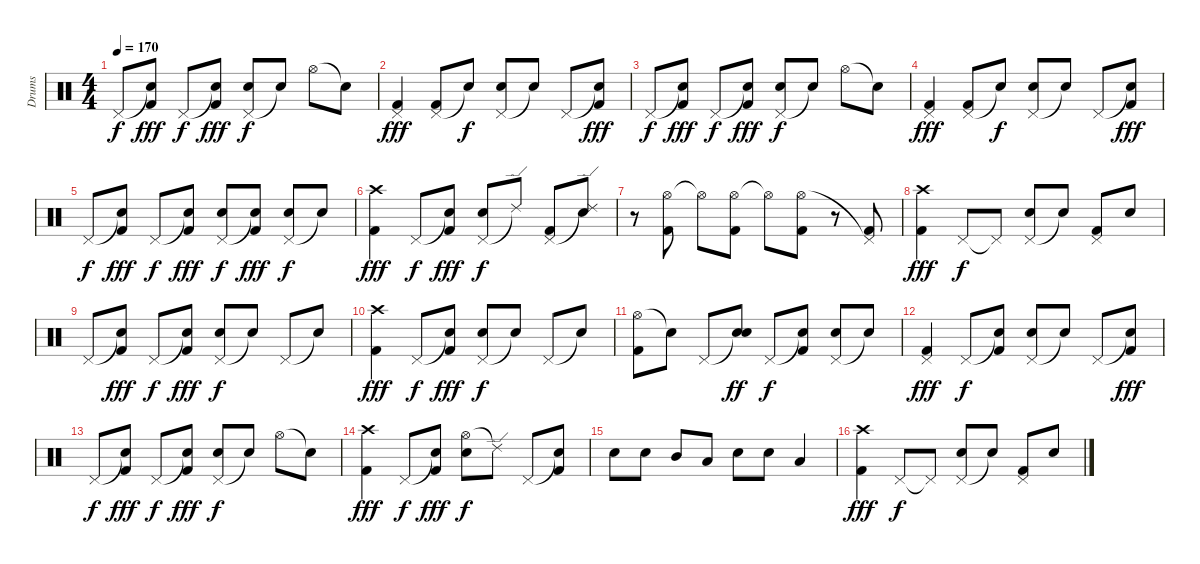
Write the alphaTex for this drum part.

\track ("Drums" "Drums") {instrument percussion}
\staff {score}
\articulation defaults
\ts (4 4)
\tempo 170
\clef neutral
\ks c "Pedal Hi-Hat (hit)".8{dy f}
("Snare (hit)"{t} "Kick (hit) 2").8{dy fff} "Pedal Hi-Hat (hit)".8{dy f} ("Snare (hit)"{t} "Kick (hit) 2").8{dy fff} ("Pedal Hi-Hat (hit)" "Electric Snare (hit)").8{dy f} "Snare (hit)"{t}.8 "Hi-Hat (open)".8 "Snare (hit)"{t}.8 |
("Pedal Hi-Hat (hit)" "Kick (hit) 2").4{dy fff} ("Pedal Hi-Hat (hit)" "Kick (hit) 2").8 "Snare (hit)"{t}.8{dy f} ("Pedal Hi-Hat (hit)" "Electric Snare (hit)").8 "Snare (hit)"{t}.8 "Pedal Hi-Hat (hit)".8 ("Snare (hit)"{t} "Kick (hit) 2").8{dy fff} |
"Pedal Hi-Hat (hit)".8{dy f} ("Snare (hit)"{t} "Kick (hit) 2").8{dy fff} "Pedal Hi-Hat (hit)".8{dy f} ("Snare (hit)"{t} "Kick (hit) 2").8{dy fff} ("Pedal Hi-Hat (hit)" "Electric Snare (hit)").8{dy f} "Snare (hit)"{t}.8 "Hi-Hat (open)".8 "Snare (hit)"{t}.8 |
("Pedal Hi-Hat (hit)" "Kick (hit) 2").4{dy fff} ("Pedal Hi-Hat (hit)" "Kick (hit) 2").8 "Snare (hit)"{t}.8{dy f} ("Pedal Hi-Hat (hit)" "Electric Snare (hit)").8 "Snare (hit)"{t}.8 "Pedal Hi-Hat (hit)".8 ("Snare (hit)"{t} "Kick (hit) 2").8{dy fff} |
"Pedal Hi-Hat (hit)".8{dy f} ("Snare (hit)"{t} "Kick (hit) 2").8{dy fff} "Pedal Hi-Hat (hit)".8{dy f} ("Snare (hit)"{t} "Kick (hit) 2").8{dy fff} ("Pedal Hi-Hat (hit)" "Electric Snare (hit)").8{dy f} ("Snare (hit)"{t} "Kick (hit) 2").8{dy fff} ("Pedal Hi-Hat (hit)" "Electric Snare (hit)").8{dy f} "Snare (hit)"{t}.8 |
("Crash high (hit)" "Kick (hit) 2").4{dy fff} "Pedal Hi-Hat (hit)".8{dy f} ("Snare (hit)"{t} "Kick (hit) 2").8{dy fff} ("Pedal Hi-Hat (hit)" "Electric Snare (hit)").8{dy f} "Ride (edge) 2"{t}.8 ("Pedal Hi-Hat (hit)" "Kick (hit) 2").8 ("Ride (edge) 2"{t} "Electric Snare (hit)").8 |
r.8 ("Hi-Hat (open)" "Kick (hit) 2").8 "Hi-Hat (open)"{t}.8 ("Hi-Hat (open)" "Kick (hit) 2").8 "Hi-Hat (open)"{t}.8 ("Hi-Hat (open)" "Kick (hit) 2").8 r.8 ("Pedal Hi-Hat (hit)"{t} "Kick (hit) 2").8 |
("Crash high (hit)" "Kick (hit) 2").4{dy fff} "Pedal Hi-Hat (hit)".8{dy f} "Pedal Hi-Hat (hit)"{t}.8 ("Pedal Hi-Hat (hit)" "Electric Snare (hit)").8 "Snare (hit)"{t}.8 ("Pedal Hi-Hat (hit)" "Kick (hit) 2").8 "Electric Snare (hit)".8 |
"Pedal Hi-Hat (hit)".8 ("Snare (hit)"{t} "Kick (hit) 2").8{dy fff} "Pedal Hi-Hat (hit)".8{dy f} ("Snare (hit)"{t} "Kick (hit) 2").8{dy fff} ("Pedal Hi-Hat (hit)" "Electric Snare (hit)").8{dy f} "Snare (hit)"{t}.8 "Pedal Hi-Hat (hit)".8 "Snare (hit)"{t}.8 |
("Crash high (hit)" "Kick (hit) 2").4{dy fff} "Pedal Hi-Hat (hit)".8{dy f} ("Snare (hit)"{t} "Kick (hit) 2").8{dy fff} ("Pedal Hi-Hat (hit)" "Electric Snare (hit)").8{dy f} "Snare (hit)"{t}.8 "Pedal Hi-Hat (hit)".8 "Snare (hit)"{t}.8 |
("Hi-Hat (open)" "Kick (hit) 2").8 "Snare (hit)"{t}.8 "Pedal Hi-Hat (hit)".8 ("Snare (hit)"{t} "Electric Snare (hit)").8{dy ff} "Pedal Hi-Hat (hit)".8{dy f} ("Snare (hit)"{t} "Kick (hit) 2").8 ("Pedal Hi-Hat (hit)" "Electric Snare (hit)").8 "Snare (hit)"{t}.8 |
("Pedal Hi-Hat (hit)" "Kick (hit) 2").4{dy fff} "Pedal Hi-Hat (hit)".8{dy f} ("Snare (hit)"{t} "Kick (hit) 2").8 ("Pedal Hi-Hat (hit)" "Electric Snare (hit)").8 "Snare (hit)"{t}.8 "Pedal Hi-Hat (hit)".8 ("Snare (hit)"{t} "Kick (hit) 2").8{dy fff} |
"Pedal Hi-Hat (hit)".8{dy f} ("Snare (hit)"{t} "Kick (hit) 2").8{dy fff} "Pedal Hi-Hat (hit)".8{dy f} ("Snare (hit)"{t} "Kick (hit) 2").8{dy fff} ("Pedal Hi-Hat (hit)" "Electric Snare (hit)").8{dy f} "Snare (hit)"{t}.8 "Hi-Hat (open)".8 "Snare (hit)"{t}.8 |
("Crash high (hit)" "Kick (hit) 2").4{dy fff} "Pedal Hi-Hat (hit)".8{dy f} ("Snare (hit)"{t} "Kick (hit) 2").8{dy fff} ("Hi-Hat (open)" "Electric Snare (hit)").8{dy f} "Ride (edge) 2"{t}.8 "Pedal Hi-Hat (hit)".8 ("Snare (hit)"{t} "Kick (hit) 2").8 |
"Electric Snare (hit)".8 "Electric Snare (hit)".8 "Mid Tom (hit)".8 "Low Tom (hit)".8 "Electric Snare (hit)".8 "Electric Snare (hit)".8 "Low Tom (hit)".4 |
("Crash high (hit)" "Kick (hit) 2").4{dy fff} "Pedal Hi-Hat (hit)".8{dy f} "Pedal Hi-Hat (hit)"{t}.8 ("Pedal Hi-Hat (hit)" "Electric Snare (hit)").8 "Snare (hit)"{t}.8 ("Pedal Hi-Hat (hit)" "Kick (hit) 2").8 "Electric Snare (hit)".8
